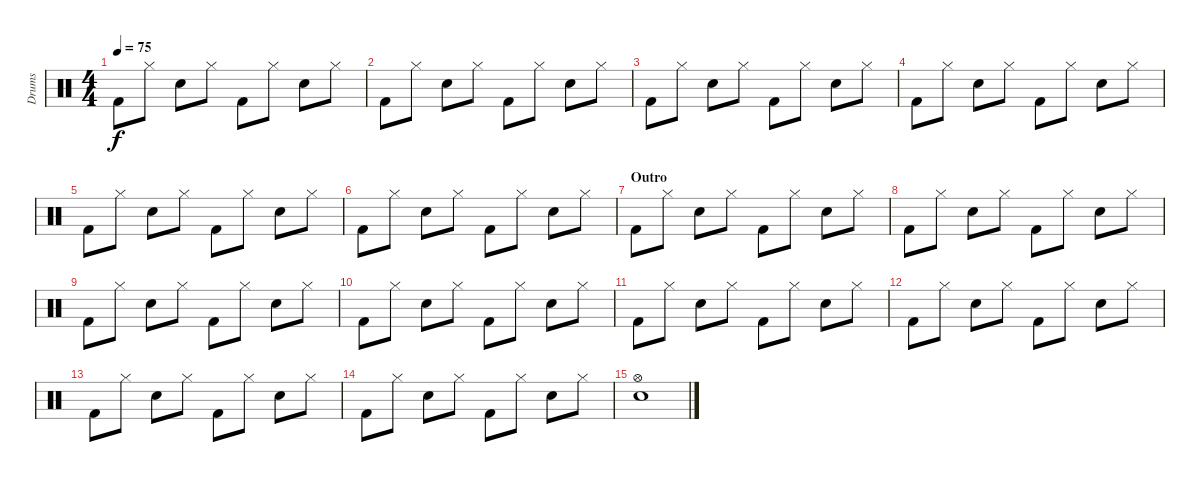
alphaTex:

\track ("Drums" "Drums") {instrument percussion}
\staff {score}
\articulation defaults
\ts (4 4)
\tempo 75
\clef neutral
\ks c "Kick (hit) 2".8{dy f} "Hi-Hat (closed)".8 "Snare (hit) 2".8 "Hi-Hat (closed)".8 "Kick (hit) 2".8 "Hi-Hat (closed)".8 "Snare (hit) 2".8 "Hi-Hat (closed)".8
|
"Kick (hit) 2".8 "Hi-Hat (closed)".8 "Snare (hit) 2".8 "Hi-Hat (closed)".8 "Kick (hit) 2".8 "Hi-Hat (closed)".8 "Snare (hit) 2".8 "Hi-Hat (closed)".8 |
"Kick (hit) 2".8 "Hi-Hat (closed)".8 "Snare (hit) 2".8 "Hi-Hat (closed)".8 "Kick (hit) 2".8 "Hi-Hat (closed)".8 "Snare (hit) 2".8 "Hi-Hat (closed)".8 |
"Kick (hit) 2".8 "Hi-Hat (closed)".8 "Snare (hit) 2".8 "Hi-Hat (closed)".8 "Kick (hit) 2".8 "Hi-Hat (closed)".8 "Snare (hit) 2".8 "Hi-Hat (closed)".8 |
"Kick (hit) 2".8 "Hi-Hat (closed)".8 "Snare (hit) 2".8 "Hi-Hat (closed)".8 "Kick (hit) 2".8 "Hi-Hat (closed)".8 "Snare (hit) 2".8 "Hi-Hat (closed)".8 |
"Kick (hit) 2".8 "Hi-Hat (closed)".8 "Snare (hit) 2".8 "Hi-Hat (closed)".8 "Kick (hit) 2".8 "Hi-Hat (closed)".8 "Snare (hit) 2".8 "Hi-Hat (closed)".8 |
\section ("" "Outro")
"Kick (hit) 2".8 "Hi-Hat (closed)".8 "Snare (hit) 2".8 "Hi-Hat (closed)".8 "Kick (hit) 2".8 "Hi-Hat (closed)".8 "Snare (hit) 2".8 "Hi-Hat (closed)".8 |
"Kick (hit) 2".8 "Hi-Hat (closed)".8 "Snare (hit) 2".8 "Hi-Hat (closed)".8 "Kick (hit) 2".8 "Hi-Hat (closed)".8 "Snare (hit) 2".8 "Hi-Hat (closed)".8 |
"Kick (hit) 2".8 "Hi-Hat (closed)".8 "Snare (hit) 2".8 "Hi-Hat (closed)".8 "Kick (hit) 2".8 "Hi-Hat (closed)".8 "Snare (hit) 2".8 "Hi-Hat (closed)".8 |
"Kick (hit) 2".8 "Hi-Hat (closed)".8 "Snare (hit) 2".8 "Hi-Hat (closed)".8 "Kick (hit) 2".8 "Hi-Hat (closed)".8 "Snare (hit) 2".8 "Hi-Hat (closed)".8 |
"Kick (hit) 2".8 "Hi-Hat (closed)".8 "Snare (hit) 2".8 "Hi-Hat (closed)".8 "Kick (hit) 2".8 "Hi-Hat (closed)".8 "Snare (hit) 2".8 "Hi-Hat (closed)".8 |
"Kick (hit) 2".8 "Hi-Hat (closed)".8 "Snare (hit) 2".8 "Hi-Hat (closed)".8 "Kick (hit) 2".8 "Hi-Hat (closed)".8 "Snare (hit) 2".8 "Hi-Hat (closed)".8 |
"Kick (hit) 2".8 "Hi-Hat (closed)".8 "Snare (hit) 2".8 "Hi-Hat (closed)".8 "Kick (hit) 2".8 "Hi-Hat (closed)".8 "Snare (hit) 2".8 "Hi-Hat (closed)".8 |
"Kick (hit) 2".8 "Hi-Hat (closed)".8 "Snare (hit) 2".8 "Hi-Hat (closed)".8 "Kick (hit) 2".8 "Hi-Hat (closed)".8 "Snare (hit) 2".8 "Hi-Hat (closed)".8 |
("Snare (hit) 2" "Hi-Hat (open)").1
